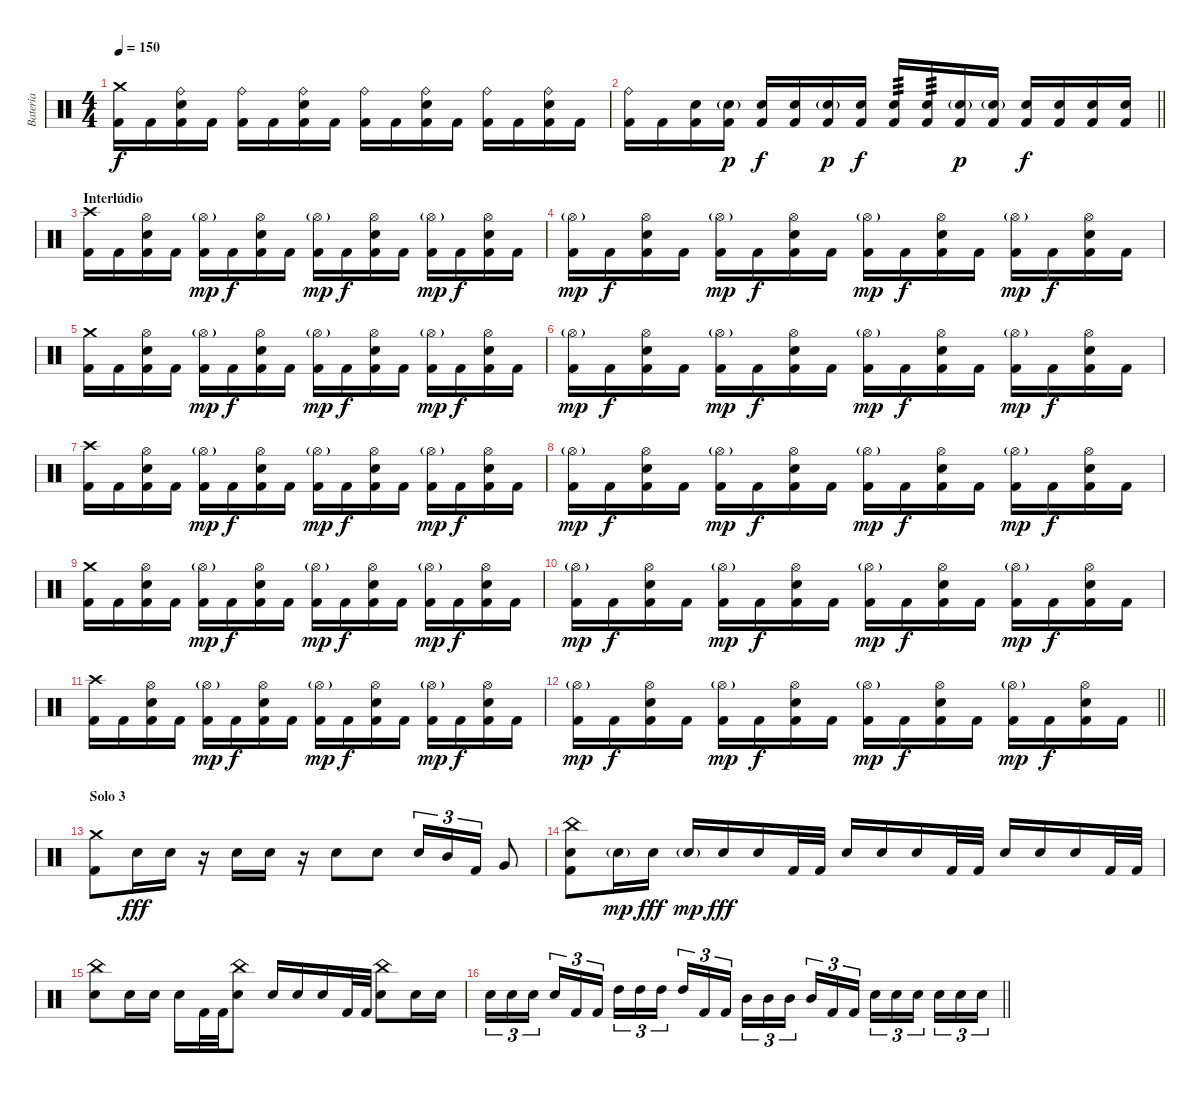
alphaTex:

\track ("Bateria" "Bateria") {instrument percussion}
\staff {score}
\articulation defaults
\ts (4 4)
\tempo 150
\clef neutral
\ks c
("Crash medium (hit)" "Kick (hit) 2").16{dy f} "Kick (hit) 2".16 ("Ride (bell)" "Electric Snare (hit)" "Kick (hit) 2").16 "Kick (hit) 2".16 ("Ride (bell)" "Kick (hit) 2").16 "Kick (hit) 2".16 ("Ride (bell)" "Electric Snare (hit)" "Kick (hit) 2").16 "Kick (hit) 2".16 ("Ride (bell)" "Kick (hit) 2").16 "Kick (hit) 2".16 ("Ride (bell)" "Electric Snare (hit)" "Kick (hit) 2").16 "Kick (hit) 2".16 ("Ride (bell)" "Kick (hit) 2").16 "Kick (hit) 2".16 ("Ride (bell)" "Electric Snare (hit)" "Kick (hit) 2").16 "Kick (hit) 2".16 |
\barLineRight lightlight
("Ride (bell)" "Kick (hit) 2").16 "Kick (hit) 2".16 ("Electric Snare (hit)" "Kick (hit) 2").16 ("Electric Snare (hit)"{g} "Kick (hit) 2").16{dy p} ("Electric Snare (hit)" "Kick (hit) 2").16{dy f} ("Electric Snare (hit)" "Kick (hit) 2").16 ("Electric Snare (hit)"{g} "Kick (hit) 2").16{dy p} ("Electric Snare (hit)" "Kick (hit) 2").16{dy f} ("Electric Snare (hit)" "Kick (hit) 2").16{tp 3} ("Electric Snare (hit)" "Kick (hit) 2").16{tp 3} ("Electric Snare (hit)"{g} "Kick (hit) 2").16{dy p} ("Electric Snare (hit)"{g} "Kick (hit) 2").16 ("Electric Snare (hit)" "Kick (hit) 2").16{dy f} ("Electric Snare (hit)" "Kick (hit) 2").16 ("Electric Snare (hit)" "Kick (hit) 2").16 ("Electric Snare (hit)" "Kick (hit) 2").16 |
\section ("" "Interlúdio")
("Crash high (hit)" "Kick (hit) 2").16 "Kick (hit) 2".16 ("Hi-Hat (open)" "Electric Snare (hit)" "Kick (hit) 2").16 "Kick (hit) 2".16 ("Hi-Hat (open)"{g} "Kick (hit) 2").16{dy mp} "Kick (hit) 2".16{dy f} ("Hi-Hat (open)" "Electric Snare (hit)" "Kick (hit) 2").16 "Kick (hit) 2".16 ("Hi-Hat (open)"{g} "Kick (hit) 2").16{dy mp} "Kick (hit) 2".16{dy f} ("Hi-Hat (open)" "Electric Snare (hit)" "Kick (hit) 2").16 "Kick (hit) 2".16 ("Hi-Hat (open)"{g} "Kick (hit) 2").16{dy mp} "Kick (hit) 2".16{dy f} ("Hi-Hat (open)" "Electric Snare (hit)" "Kick (hit) 2").16 "Kick (hit) 2".16 |
("Hi-Hat (open)"{g} "Kick (hit) 2").16{dy mp} "Kick (hit) 2".16{dy f} ("Hi-Hat (open)" "Electric Snare (hit)" "Kick (hit) 2").16 "Kick (hit) 2".16 ("Hi-Hat (open)"{g} "Kick (hit) 2").16{dy mp} "Kick (hit) 2".16{dy f} ("Hi-Hat (open)" "Electric Snare (hit)" "Kick (hit) 2").16 "Kick (hit) 2".16 ("Hi-Hat (open)"{g} "Kick (hit) 2").16{dy mp} "Kick (hit) 2".16{dy f} ("Hi-Hat (open)" "Electric Snare (hit)" "Kick (hit) 2").16 "Kick (hit) 2".16 ("Hi-Hat (open)"{g} "Kick (hit) 2").16{dy mp} "Kick (hit) 2".16{dy f} ("Hi-Hat (open)" "Electric Snare (hit)" "Kick (hit) 2").16 "Kick (hit) 2".16 |
("Crash medium (hit)" "Kick (hit) 2").16 "Kick (hit) 2".16 ("Hi-Hat (open)" "Electric Snare (hit)" "Kick (hit) 2").16 "Kick (hit) 2".16 ("Hi-Hat (open)"{g} "Kick (hit) 2").16{dy mp} "Kick (hit) 2".16{dy f} ("Hi-Hat (open)" "Electric Snare (hit)" "Kick (hit) 2").16 "Kick (hit) 2".16 ("Hi-Hat (open)"{g} "Kick (hit) 2").16{dy mp} "Kick (hit) 2".16{dy f} ("Hi-Hat (open)" "Electric Snare (hit)" "Kick (hit) 2").16 "Kick (hit) 2".16 ("Hi-Hat (open)"{g} "Kick (hit) 2").16{dy mp} "Kick (hit) 2".16{dy f} ("Hi-Hat (open)" "Electric Snare (hit)" "Kick (hit) 2").16 "Kick (hit) 2".16 |
("Hi-Hat (open)"{g} "Kick (hit) 2").16{dy mp} "Kick (hit) 2".16{dy f} ("Hi-Hat (open)" "Electric Snare (hit)" "Kick (hit) 2").16 "Kick (hit) 2".16 ("Hi-Hat (open)"{g} "Kick (hit) 2").16{dy mp} "Kick (hit) 2".16{dy f} ("Hi-Hat (open)" "Electric Snare (hit)" "Kick (hit) 2").16 "Kick (hit) 2".16 ("Hi-Hat (open)"{g} "Kick (hit) 2").16{dy mp} "Kick (hit) 2".16{dy f} ("Hi-Hat (open)" "Electric Snare (hit)" "Kick (hit) 2").16 "Kick (hit) 2".16 ("Hi-Hat (open)"{g} "Kick (hit) 2").16{dy mp} "Kick (hit) 2".16{dy f} ("Hi-Hat (open)" "Electric Snare (hit)" "Kick (hit) 2").16 "Kick (hit) 2".16 |
("Crash high (hit)" "Kick (hit) 2").16 "Kick (hit) 2".16 ("Hi-Hat (open)" "Electric Snare (hit)" "Kick (hit) 2").16 "Kick (hit) 2".16 ("Hi-Hat (open)"{g} "Kick (hit) 2").16{dy mp} "Kick (hit) 2".16{dy f} ("Hi-Hat (open)" "Electric Snare (hit)" "Kick (hit) 2").16 "Kick (hit) 2".16 ("Hi-Hat (open)"{g} "Kick (hit) 2").16{dy mp} "Kick (hit) 2".16{dy f} ("Hi-Hat (open)" "Electric Snare (hit)" "Kick (hit) 2").16 "Kick (hit) 2".16 ("Hi-Hat (open)"{g} "Kick (hit) 2").16{dy mp} "Kick (hit) 2".16{dy f} ("Hi-Hat (open)" "Electric Snare (hit)" "Kick (hit) 2").16 "Kick (hit) 2".16 |
("Hi-Hat (open)"{g} "Kick (hit) 2").16{dy mp} "Kick (hit) 2".16{dy f} ("Hi-Hat (open)" "Electric Snare (hit)" "Kick (hit) 2").16 "Kick (hit) 2".16 ("Hi-Hat (open)"{g} "Kick (hit) 2").16{dy mp} "Kick (hit) 2".16{dy f} ("Hi-Hat (open)" "Electric Snare (hit)" "Kick (hit) 2").16 "Kick (hit) 2".16 ("Hi-Hat (open)"{g} "Kick (hit) 2").16{dy mp} "Kick (hit) 2".16{dy f} ("Hi-Hat (open)" "Electric Snare (hit)" "Kick (hit) 2").16 "Kick (hit) 2".16 ("Hi-Hat (open)"{g} "Kick (hit) 2").16{dy mp} "Kick (hit) 2".16{dy f} ("Hi-Hat (open)" "Electric Snare (hit)" "Kick (hit) 2").16 "Kick (hit) 2".16 |
("Crash medium (hit)" "Kick (hit) 2").16 "Kick (hit) 2".16 ("Hi-Hat (open)" "Electric Snare (hit)" "Kick (hit) 2").16 "Kick (hit) 2".16 ("Hi-Hat (open)"{g} "Kick (hit) 2").16{dy mp} "Kick (hit) 2".16{dy f} ("Hi-Hat (open)" "Electric Snare (hit)" "Kick (hit) 2").16 "Kick (hit) 2".16 ("Hi-Hat (open)"{g} "Kick (hit) 2").16{dy mp} "Kick (hit) 2".16{dy f} ("Hi-Hat (open)" "Electric Snare (hit)" "Kick (hit) 2").16 "Kick (hit) 2".16 ("Hi-Hat (open)"{g} "Kick (hit) 2").16{dy mp} "Kick (hit) 2".16{dy f} ("Hi-Hat (open)" "Electric Snare (hit)" "Kick (hit) 2").16 "Kick (hit) 2".16 |
("Hi-Hat (open)"{g} "Kick (hit) 2").16{dy mp} "Kick (hit) 2".16{dy f} ("Hi-Hat (open)" "Electric Snare (hit)" "Kick (hit) 2").16 "Kick (hit) 2".16 ("Hi-Hat (open)"{g} "Kick (hit) 2").16{dy mp} "Kick (hit) 2".16{dy f} ("Hi-Hat (open)" "Electric Snare (hit)" "Kick (hit) 2").16 "Kick (hit) 2".16 ("Hi-Hat (open)"{g} "Kick (hit) 2").16{dy mp} "Kick (hit) 2".16{dy f} ("Hi-Hat (open)" "Electric Snare (hit)" "Kick (hit) 2").16 "Kick (hit) 2".16 ("Hi-Hat (open)"{g} "Kick (hit) 2").16{dy mp} "Kick (hit) 2".16{dy f} ("Hi-Hat (open)" "Electric Snare (hit)" "Kick (hit) 2").16 "Kick (hit) 2".16 |
("Crash high (hit)" "Kick (hit) 2").16 "Kick (hit) 2".16 ("Hi-Hat (open)" "Electric Snare (hit)" "Kick (hit) 2").16 "Kick (hit) 2".16 ("Hi-Hat (open)"{g} "Kick (hit) 2").16{dy mp} "Kick (hit) 2".16{dy f} ("Hi-Hat (open)" "Electric Snare (hit)" "Kick (hit) 2").16 "Kick (hit) 2".16 ("Hi-Hat (open)"{g} "Kick (hit) 2").16{dy mp} "Kick (hit) 2".16{dy f} ("Hi-Hat (open)" "Electric Snare (hit)" "Kick (hit) 2").16 "Kick (hit) 2".16 ("Hi-Hat (open)"{g} "Kick (hit) 2").16{dy mp} "Kick (hit) 2".16{dy f} ("Hi-Hat (open)" "Electric Snare (hit)" "Kick (hit) 2").16 "Kick (hit) 2".16 |
\barLineRight lightlight
("Hi-Hat (open)"{g} "Kick (hit) 2").16{dy mp} "Kick (hit) 2".16{dy f} ("Hi-Hat (open)" "Electric Snare (hit)" "Kick (hit) 2").16 "Kick (hit) 2".16 ("Hi-Hat (open)"{g} "Kick (hit) 2").16{dy mp} "Kick (hit) 2".16{dy f} ("Hi-Hat (open)" "Electric Snare (hit)" "Kick (hit) 2").16 "Kick (hit) 2".16 ("Hi-Hat (open)"{g} "Kick (hit) 2").16{dy mp} "Kick (hit) 2".16{dy f} ("Hi-Hat (open)" "Electric Snare (hit)" "Kick (hit) 2").16 "Kick (hit) 2".16 ("Hi-Hat (open)"{g} "Kick (hit) 2").16{dy mp} "Kick (hit) 2".16{dy f} ("Hi-Hat (open)" "Electric Snare (hit)" "Kick (hit) 2").16 "Kick (hit) 2".16 |
\section ("" "Solo 3")
("Crash medium (hit)" "Kick (hit) 2").8 "Electric Snare (hit)".16{dy fff} "Electric Snare (hit)".16 r.16 "Electric Snare (hit)".16 "Electric Snare (hit)".16 r.16 "Electric Snare (hit)".8 "Electric Snare (hit)".8 "Electric Snare (hit)".16{tu (3 2)} "Mid Tom (hit)".16{tu (3 2)} "Kick (hit) 2".16{tu (3 2)} "Very Low Tom (hit)".8 |
("China (hit)" "Electric Snare (hit)" "Kick (hit) 2").8 "Electric Snare (hit)"{g}.16{dy mp} "Electric Snare (hit)".16{dy fff} "Electric Snare (hit)"{g}.16{dy mp} "Electric Snare (hit)".16{dy fff} "Electric Snare (hit)".16 "Kick (hit) 2".32 "Kick (hit) 2".32 "Electric Snare (hit)".16 "Electric Snare (hit)".16 "Electric Snare (hit)".16 "Kick (hit) 2".32 "Kick (hit) 2".32 "Electric Snare (hit)".16 "Electric Snare (hit)".16 "Electric Snare (hit)".16 "Kick (hit) 2".32 "Kick (hit) 2".32 |
("China (hit)" "Electric Snare (hit)").8 "Electric Snare (hit)".16 "Electric Snare (hit)".16 "Electric Snare (hit)".16 "Kick (hit) 2".32 "Kick (hit) 2".32 ("China (hit)" "Electric Snare (hit)").8 "Electric Snare (hit)".16 "Electric Snare (hit)".16 "Electric Snare (hit)".16 "Kick (hit) 2".32 "Kick (hit) 2".32 ("China (hit)" "Electric Snare (hit)").8 "Electric Snare (hit)".16 "Electric Snare (hit)".16 |
\barLineRight lightlight "Electric Snare (hit)".16{tu (3 2)} "Electric Snare (hit)".16{tu (3 2)} "Electric Snare (hit)".16{tu (3 2) beam splitsecondary} "Electric Snare (hit)".16{tu (3 2)} "Kick (hit) 2".16{tu (3 2)} "Kick (hit) 2".16{tu (3 2)} "High Tom (hit)".16{tu (3 2)} "High Tom (hit)".16{tu (3 2)} "High Tom (hit)".16{tu (3 2) beam splitsecondary} "High Tom (hit)".16{tu (3 2)} "Kick (hit) 2".16{tu (3 2)} "Kick (hit) 2".16{tu (3 2)} "Mid Tom (hit)".16{tu (3 2)} "Mid Tom (hit)".16{tu (3 2)} "Mid Tom (hit)".16{tu (3 2) beam splitsecondary} "Mid Tom (hit)".16{tu (3 2)} "Kick (hit) 2".16{tu (3 2)} "Kick (hit) 2".16{tu (3 2)} "Electric Snare (hit)".16{tu (3 2)} "Electric Snare (hit)".16{tu (3 2)} "Electric Snare (hit)".16{tu (3 2) beam splitsecondary} "Electric Snare (hit)".16{tu (3 2)} "Electric Snare (hit)".16{tu (3 2)} "Electric Snare (hit)".16{tu (3 2)}
